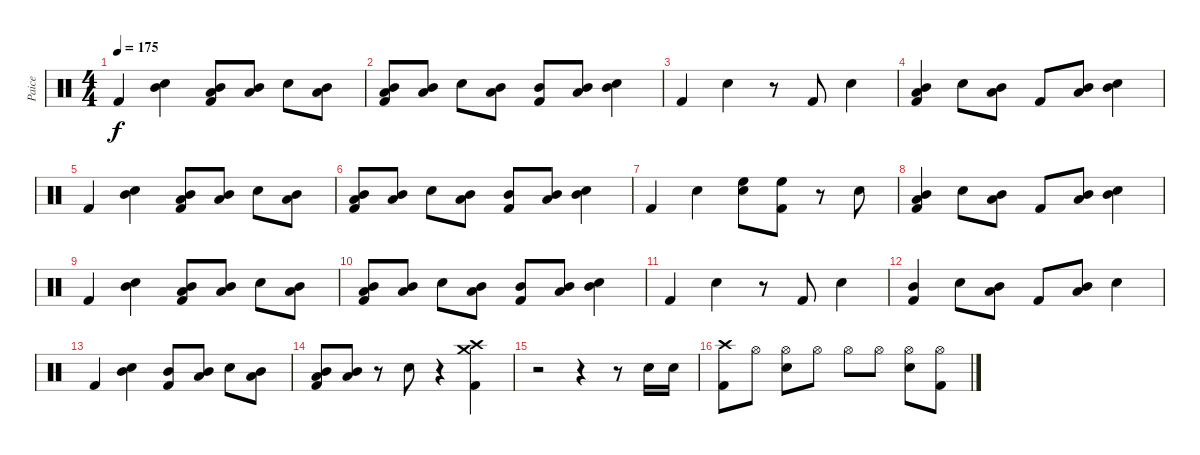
\track ("Paice" "Paice") {instrument percussion}
\staff {score}
\articulation defaults
\ts (4 4)
\tempo 175
\clef neutral
\ks c "Kick (hit) 2".4{dy f}
("Mid Tom (hit)" "Electric Snare (hit)").4 ("Mid Tom (hit)" "Low Tom (hit)" "Kick (hit) 2").8 ("Mid Tom (hit)" "Low Tom (hit)").8 "Electric Snare (hit)".8 ("Mid Tom (hit)" "Low Tom (hit)").8 |
("Mid Tom (hit)" "Low Tom (hit)" "Kick (hit) 2").8 ("Mid Tom (hit)" "Low Tom (hit)").8 "Electric Snare (hit)".8 ("Mid Tom (hit)" "Low Tom (hit)").8 ("Mid Tom (hit)" "Kick (hit) 2").8 ("Mid Tom (hit)" "Low Tom (hit)").8 ("Mid Tom (hit)" "Electric Snare (hit)").4 |
"Kick (hit) 2".4 "Electric Snare (hit)".4 r.8 "Kick (hit) 2".8 "Electric Snare (hit)".4 |
("Mid Tom (hit)" "Low Tom (hit)" "Kick (hit) 2").4 "Electric Snare (hit)".8 ("Mid Tom (hit)" "Low Tom (hit)").8 "Kick (hit) 2".8 ("Mid Tom (hit)" "Low Tom (hit)").8 ("Mid Tom (hit)" "Electric Snare (hit)").4 |
"Kick (hit) 2".4 ("Mid Tom (hit)" "Electric Snare (hit)").4 ("Mid Tom (hit)" "Low Tom (hit)" "Kick (hit) 2").8 ("Mid Tom (hit)" "Low Tom (hit)").8 "Electric Snare (hit)".8 ("Mid Tom (hit)" "Low Tom (hit)").8 |
("Mid Tom (hit)" "Low Tom (hit)" "Kick (hit) 2").8 ("Mid Tom (hit)" "Low Tom (hit)").8 "Electric Snare (hit)".8 ("Mid Tom (hit)" "Low Tom (hit)").8 ("Mid Tom (hit)" "Kick (hit) 2").8 ("Mid Tom (hit)" "Low Tom (hit)").8 ("Mid Tom (hit)" "Electric Snare (hit)").4 |
"Kick (hit) 2".4 "Electric Snare (hit)".4 ("High Floor Tom (hit)" "Electric Snare (hit)").8 ("High Floor Tom (hit)" "Kick (hit) 2").8 r.8 "Electric Snare (hit)".8 |
("Mid Tom (hit)" "Low Tom (hit)" "Kick (hit) 2").4 "Electric Snare (hit)".8 ("Mid Tom (hit)" "Low Tom (hit)").8 "Kick (hit) 2".8 ("Mid Tom (hit)" "Low Tom (hit)").8 ("Mid Tom (hit)" "Electric Snare (hit)").4 |
"Kick (hit) 2".4 ("Mid Tom (hit)" "Electric Snare (hit)").4 ("Mid Tom (hit)" "Low Tom (hit)" "Kick (hit) 2").8 ("Mid Tom (hit)" "Low Tom (hit)").8 "Electric Snare (hit)".8 ("Mid Tom (hit)" "Low Tom (hit)").8 |
("Mid Tom (hit)" "Low Tom (hit)" "Kick (hit) 2").8 ("Mid Tom (hit)" "Low Tom (hit)").8 "Electric Snare (hit)".8 ("Mid Tom (hit)" "Low Tom (hit)").8 ("Mid Tom (hit)" "Kick (hit) 2").8 ("Mid Tom (hit)" "Low Tom (hit)").8 ("Mid Tom (hit)" "Electric Snare (hit)").4 |
"Kick (hit) 2".4 "Electric Snare (hit)".4 r.8 "Kick (hit) 2".8 "Electric Snare (hit)".4 |
("Mid Tom (hit)" "Kick (hit) 2").4 "Electric Snare (hit)".8 ("Mid Tom (hit)" "Low Tom (hit)").8 "Kick (hit) 2".8 ("Mid Tom (hit)" "Low Tom (hit)").8 "Electric Snare (hit)".4 |
"Kick (hit) 2".4 ("Mid Tom (hit)" "Electric Snare (hit)").4 ("Mid Tom (hit)" "Kick (hit) 2").8 ("Mid Tom (hit)" "Low Tom (hit)").8 "Electric Snare (hit)".8 ("Mid Tom (hit)" "Low Tom (hit)").8 |
("Mid Tom (hit)" "Low Tom (hit)" "Kick (hit) 2").8 ("Mid Tom (hit)" "Low Tom (hit)").8 r.8 "Electric Snare (hit)".8 r.4 ("Crash high (hit)" "Crash medium (hit)" "Kick (hit) 2").4 |
r.2 r.4 r.8 "Electric Snare (hit)".16 "Electric Snare (hit)".16 |
("Crash high (hit)" "Kick (hit) 2").8 "Hi-Hat (open)".8 ("Hi-Hat (open)" "Electric Snare (hit)").8 "Hi-Hat (open)".8 "Hi-Hat (open)".8 "Hi-Hat (open)".8 ("Hi-Hat (open)" "Electric Snare (hit)").8 ("Hi-Hat (open)" "Kick (hit) 2").8
